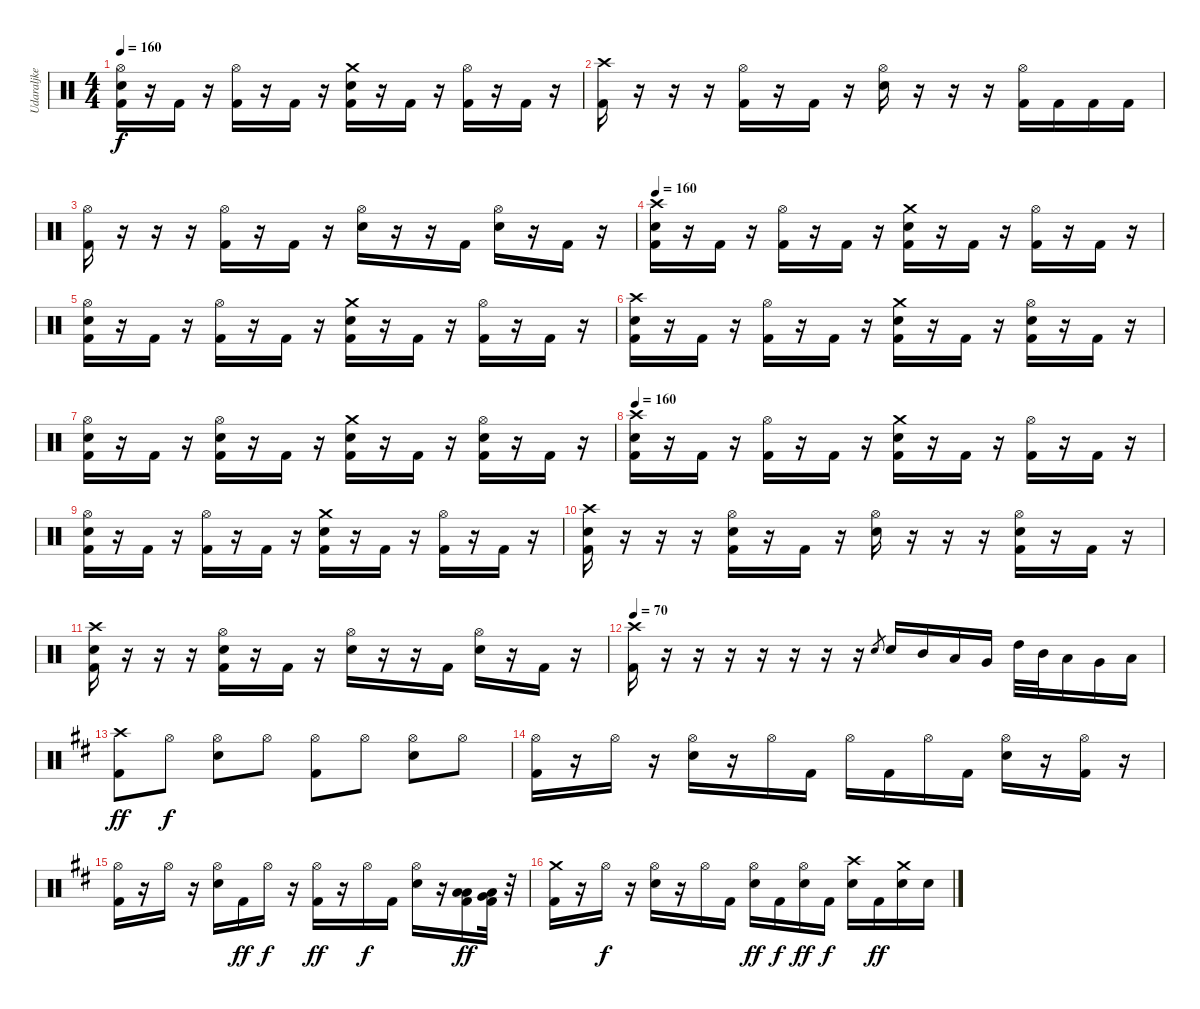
\track ("Udaraljke" "Udaraljke") {instrument percussion}
\staff {score}
\articulation defaults
\ts (4 4)
\tempo 160
\clef neutral
\ks c
("Hi-Hat (open)" "Snare (hit) 2" "Kick (hit) 2").16{dy f} r.16 "Kick (hit) 2".16 r.16 ("Hi-Hat (open)" "Kick (hit) 2").16 r.16 "Kick (hit) 2".16 r.16 ("Crash medium (hit)" "Snare (hit) 2" "Kick (hit) 2").16 r.16 "Kick (hit) 2".16 r.16 ("Hi-Hat (open)" "Kick (hit) 2").16 r.16 "Kick (hit) 2".16 r.16 |
("Crash high (hit)" "Kick (hit) 2").16 r.16 r.16 r.16 ("Hi-Hat (open)" "Kick (hit) 2").16 r.16 "Kick (hit) 2".16 r.16 ("Hi-Hat (open)" "Snare (hit) 2").16 r.16 r.16 r.16 ("Hi-Hat (open)" "Kick (hit) 2").16 "Kick (hit) 2".16 "Kick (hit) 2".16 "Kick (hit) 2".16 |
("Hi-Hat (open)" "Kick (hit) 2").16 r.16 r.16 r.16 ("Hi-Hat (open)" "Kick (hit) 2").16 r.16 "Kick (hit) 2".16 r.16 ("Hi-Hat (open)" "Snare (hit) 2").16 r.16 r.16 "Kick (hit) 2".16 ("Hi-Hat (open)" "Snare (hit) 2").16 r.16 "Kick (hit) 2".16 r.16 |
\tempo 160
("Crash high (hit)" "Snare (hit) 2" "Kick (hit) 2").16 r.16 "Kick (hit) 2".16 r.16 ("Hi-Hat (open)" "Kick (hit) 2").16 r.16 "Kick (hit) 2".16 r.16 ("Crash medium (hit)" "Snare (hit) 2" "Kick (hit) 2").16 r.16 "Kick (hit) 2".16 r.16 ("Hi-Hat (open)" "Kick (hit) 2").16 r.16 "Kick (hit) 2".16 r.16 |
("Hi-Hat (open)" "Snare (hit) 2" "Kick (hit) 2").16 r.16 "Kick (hit) 2".16 r.16 ("Hi-Hat (open)" "Kick (hit) 2").16 r.16 "Kick (hit) 2".16 r.16 ("Crash medium (hit)" "Snare (hit) 2" "Kick (hit) 2").16 r.16 "Kick (hit) 2".16 r.16 ("Hi-Hat (open)" "Kick (hit) 2").16 r.16 "Kick (hit) 2".16 r.16 |
("Crash high (hit)" "Snare (hit) 2" "Kick (hit) 2").16 r.16 "Kick (hit) 2".16 r.16 ("Hi-Hat (open)" "Kick (hit) 2").16 r.16 "Kick (hit) 2".16 r.16 ("Crash medium (hit)" "Snare (hit) 2" "Kick (hit) 2").16 r.16 "Kick (hit) 2".16 r.16 ("Hi-Hat (open)" "Snare (hit) 2" "Kick (hit) 2").16 r.16 "Kick (hit) 2".16 r.16 |
("Hi-Hat (open)" "Snare (hit) 2" "Kick (hit) 2").16 r.16 "Kick (hit) 2".16 r.16 ("Hi-Hat (open)" "Snare (hit) 2" "Kick (hit) 2").16 r.16 "Kick (hit) 2".16 r.16 ("Crash medium (hit)" "Snare (hit) 2" "Kick (hit) 2").16 r.16 "Kick (hit) 2".16 r.16 ("Hi-Hat (open)" "Snare (hit) 2" "Kick (hit) 2").16 r.16 "Kick (hit) 2".16 r.16 |
\tempo 160
("Crash high (hit)" "Snare (hit) 2" "Kick (hit) 2").16 r.16 "Kick (hit) 2".16 r.16 ("Hi-Hat (open)" "Kick (hit) 2").16 r.16 "Kick (hit) 2".16 r.16 ("Crash medium (hit)" "Snare (hit) 2" "Kick (hit) 2").16 r.16 "Kick (hit) 2".16 r.16 ("Hi-Hat (open)" "Kick (hit) 2").16 r.16 "Kick (hit) 2".16 r.16 |
("Hi-Hat (open)" "Snare (hit) 2" "Kick (hit) 2").16 r.16 "Kick (hit) 2".16 r.16 ("Hi-Hat (open)" "Kick (hit) 2").16 r.16 "Kick (hit) 2".16 r.16 ("Crash medium (hit)" "Snare (hit) 2" "Kick (hit) 2").16 r.16 "Kick (hit) 2".16 r.16 ("Hi-Hat (open)" "Kick (hit) 2").16 r.16 "Kick (hit) 2".16 r.16 |
("Crash high (hit)" "Snare (hit) 2" "Kick (hit) 2").16 r.16 r.16 r.16 ("Hi-Hat (open)" "Snare (hit) 2" "Kick (hit) 2").16 r.16 "Kick (hit) 2".16 r.16 ("Hi-Hat (open)" "Snare (hit) 2").16 r.16 r.16 r.16 ("Hi-Hat (open)" "Snare (hit) 2" "Kick (hit) 2").16 r.16 "Kick (hit) 2".16 r.16 |
("Crash high (hit)" "Snare (hit) 2" "Kick (hit) 2").16 r.16 r.16 r.16 ("Hi-Hat (open)" "Snare (hit) 2" "Kick (hit) 2").16 r.16 "Kick (hit) 2".16 r.16 ("Hi-Hat (open)" "Snare (hit) 2").16 r.16 r.16 "Kick (hit) 2".16 ("Hi-Hat (open)" "Snare (hit) 2").16 r.16 "Kick (hit) 2".16 r.16 |
\tempo 70
("Crash high (hit)" "Kick (hit) 2").16 r.16 r.16 r.16 r.16 r.16 r.16 r.16 "Snare (hit) 2".8{gr} "Snare (hit) 2".16 "Mid Tom (hit)".16 "Low Tom (hit)".16 "Very Low Tom (hit)".16 "High Tom (hit)".32 "Mid Tom (hit)".32 "Low Tom (hit)".16 "Very Low Tom (hit)".16 "Low Floor Tom (hit)".16 |
\ks bminor
("Crash high (hit)" "Kick (hit) 2").8{dy ff} "Hi-Hat (open)".8{dy f} ("Hi-Hat (open)" "Snare (hit) 2").8 "Hi-Hat (open)".8 ("Hi-Hat (open)" "Kick (hit) 2").8 "Hi-Hat (open)".8 ("Hi-Hat (open)" "Snare (hit) 2").8 "Hi-Hat (open)".8 |
("Hi-Hat (open)" "Kick (hit) 2").16 r.16 "Hi-Hat (open)".16 r.16 ("Hi-Hat (open)" "Snare (hit) 2").16 r.16 "Hi-Hat (open)".16 "Kick (hit) 2".16 "Hi-Hat (open)".16 "Kick (hit) 2".16 "Hi-Hat (open)".16 "Kick (hit) 2".16 ("Hi-Hat (open)" "Snare (hit) 2").16 r.16 ("Hi-Hat (open)" "Kick (hit) 2").16 r.16 |
("Hi-Hat (open)" "Kick (hit) 2").16 r.16 "Hi-Hat (open)".16 r.16 ("Hi-Hat (open)" "Snare (hit) 2").16 "Kick (hit) 2".16{dy ff} "Hi-Hat (open)".16{dy f} r.16 ("Hi-Hat (open)" "Kick (hit) 2").16{dy ff} r.16 "Hi-Hat (open)".16{dy f} "Kick (hit) 2".16 ("Hi-Hat (open)" "Snare (hit) 2").16 r.16 ("Low Tom (hit)" "Low Floor Tom (hit)" "Kick (hit) 2").16{dy ff} ("Very Low Tom (hit)" "Low Floor Tom (hit)" "Kick (hit) 2").32 r.32 |
("Crash medium (hit)" "Kick (hit) 2").16 r.16 "Hi-Hat (open)".16{dy f} r.16 ("Hi-Hat (open)" "Snare (hit) 2").16 r.16 "Hi-Hat (open)".16 "Kick (hit) 2".16 ("Hi-Hat (open)" "Snare (hit) 2").16{dy ff} "Kick (hit) 2".16{dy f} ("Hi-Hat (open)" "Snare (hit) 2").16{dy ff} "Kick (hit) 2".16{dy f} ("Crash high (hit)" "Snare (hit) 2").16 "Kick (hit) 2".16{dy ff} ("Crash medium (hit)" "Snare (hit) 2").16 "Snare (hit) 2".16
